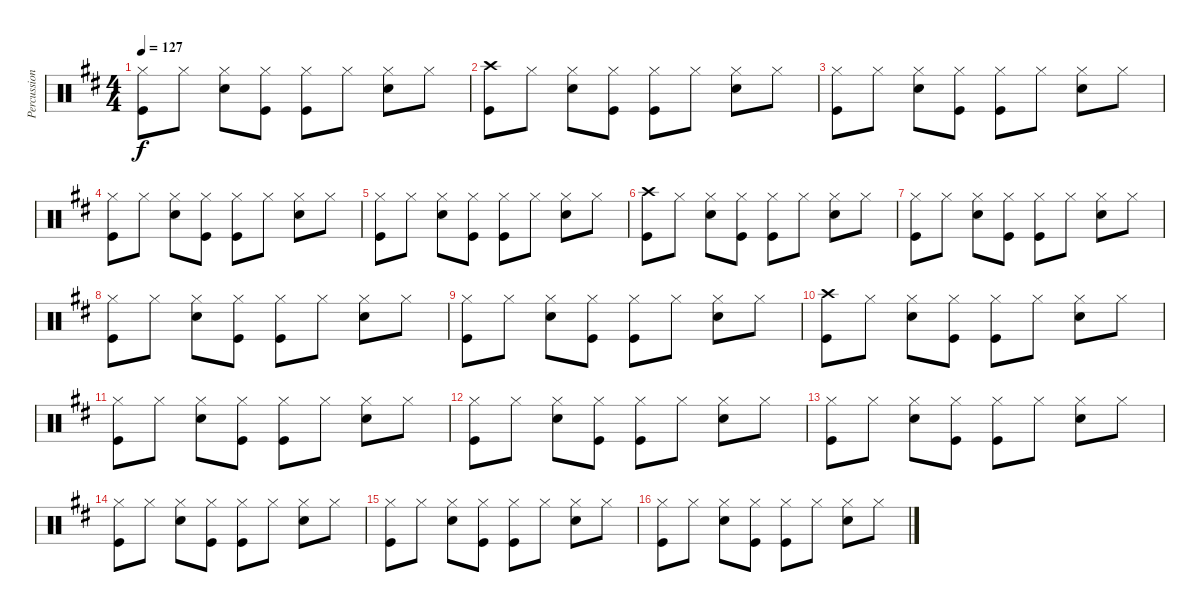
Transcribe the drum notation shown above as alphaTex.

\track ("Percussion" "Percussion") {instrument percussion}
\staff {score}
\articulation defaults
\ts (4 4)
\tempo 127
\clef neutral
\ks d
("Hi-Hat (closed)" "Kick (hit)").8{dy f} "Hi-Hat (closed)".8 ("Hi-Hat (closed)" "Snare (hit) 2").8 ("Hi-Hat (closed)" "Kick (hit)").8 ("Hi-Hat (closed)" "Kick (hit)").8 "Hi-Hat (closed)".8 ("Hi-Hat (closed)" "Snare (hit) 2").8 "Hi-Hat (closed)".8 |
("Crash high (hit)" "Kick (hit)").8 "Hi-Hat (closed)".8 ("Hi-Hat (closed)" "Snare (hit) 2").8 ("Hi-Hat (closed)" "Kick (hit)").8 ("Hi-Hat (closed)" "Kick (hit)").8 "Hi-Hat (closed)".8 ("Hi-Hat (closed)" "Snare (hit) 2").8 "Hi-Hat (closed)".8 |
("Hi-Hat (closed)" "Kick (hit)").8 "Hi-Hat (closed)".8 ("Hi-Hat (closed)" "Snare (hit) 2").8 ("Hi-Hat (closed)" "Kick (hit)").8 ("Hi-Hat (closed)" "Kick (hit)").8 "Hi-Hat (closed)".8 ("Hi-Hat (closed)" "Snare (hit) 2").8 "Hi-Hat (closed)".8 |
("Hi-Hat (closed)" "Kick (hit)").8 "Hi-Hat (closed)".8 ("Hi-Hat (closed)" "Snare (hit) 2").8 ("Hi-Hat (closed)" "Kick (hit)").8 ("Hi-Hat (closed)" "Kick (hit)").8 "Hi-Hat (closed)".8 ("Hi-Hat (closed)" "Snare (hit) 2").8 "Hi-Hat (closed)".8 |
("Hi-Hat (closed)" "Kick (hit)").8 "Hi-Hat (closed)".8 ("Hi-Hat (closed)" "Snare (hit) 2").8 ("Hi-Hat (closed)" "Kick (hit)").8 ("Hi-Hat (closed)" "Kick (hit)").8 "Hi-Hat (closed)".8 ("Hi-Hat (closed)" "Snare (hit) 2").8 "Hi-Hat (closed)".8 |
("Crash high (hit)" "Kick (hit)").8 "Hi-Hat (closed)".8 ("Hi-Hat (closed)" "Snare (hit) 2").8 ("Hi-Hat (closed)" "Kick (hit)").8 ("Hi-Hat (closed)" "Kick (hit)").8 "Hi-Hat (closed)".8 ("Hi-Hat (closed)" "Snare (hit) 2").8 "Hi-Hat (closed)".8 |
("Hi-Hat (closed)" "Kick (hit)").8 "Hi-Hat (closed)".8 ("Hi-Hat (closed)" "Snare (hit) 2").8 ("Hi-Hat (closed)" "Kick (hit)").8 ("Hi-Hat (closed)" "Kick (hit)").8 "Hi-Hat (closed)".8 ("Hi-Hat (closed)" "Snare (hit) 2").8 "Hi-Hat (closed)".8 |
("Hi-Hat (closed)" "Kick (hit)").8 "Hi-Hat (closed)".8 ("Hi-Hat (closed)" "Snare (hit) 2").8 ("Hi-Hat (closed)" "Kick (hit)").8 ("Hi-Hat (closed)" "Kick (hit)").8 "Hi-Hat (closed)".8 ("Hi-Hat (closed)" "Snare (hit) 2").8 "Hi-Hat (closed)".8 |
("Hi-Hat (closed)" "Kick (hit)").8 "Hi-Hat (closed)".8 ("Hi-Hat (closed)" "Snare (hit) 2").8 ("Hi-Hat (closed)" "Kick (hit)").8 ("Hi-Hat (closed)" "Kick (hit)").8 "Hi-Hat (closed)".8 ("Hi-Hat (closed)" "Snare (hit) 2").8 "Hi-Hat (closed)".8 |
("Crash high (hit)" "Kick (hit)").8 "Hi-Hat (closed)".8 ("Hi-Hat (closed)" "Snare (hit) 2").8 ("Hi-Hat (closed)" "Kick (hit)").8 ("Hi-Hat (closed)" "Kick (hit)").8 "Hi-Hat (closed)".8 ("Hi-Hat (closed)" "Snare (hit) 2").8 "Hi-Hat (closed)".8 |
("Hi-Hat (closed)" "Kick (hit)").8 "Hi-Hat (closed)".8 ("Hi-Hat (closed)" "Snare (hit) 2").8 ("Hi-Hat (closed)" "Kick (hit)").8 ("Hi-Hat (closed)" "Kick (hit)").8 "Hi-Hat (closed)".8 ("Hi-Hat (closed)" "Snare (hit) 2").8 "Hi-Hat (closed)".8 |
("Hi-Hat (closed)" "Kick (hit)").8 "Hi-Hat (closed)".8 ("Hi-Hat (closed)" "Snare (hit) 2").8 ("Hi-Hat (closed)" "Kick (hit)").8 ("Hi-Hat (closed)" "Kick (hit)").8 "Hi-Hat (closed)".8 ("Hi-Hat (closed)" "Snare (hit) 2").8 "Hi-Hat (closed)".8 |
("Hi-Hat (closed)" "Kick (hit)").8 "Hi-Hat (closed)".8 ("Hi-Hat (closed)" "Snare (hit) 2").8 ("Hi-Hat (closed)" "Kick (hit)").8 ("Hi-Hat (closed)" "Kick (hit)").8 "Hi-Hat (closed)".8 ("Hi-Hat (closed)" "Snare (hit) 2").8 "Hi-Hat (closed)".8 |
("Hi-Hat (closed)" "Kick (hit)").8 "Hi-Hat (closed)".8 ("Hi-Hat (closed)" "Snare (hit) 2").8 ("Hi-Hat (closed)" "Kick (hit)").8 ("Hi-Hat (closed)" "Kick (hit)").8 "Hi-Hat (closed)".8 ("Hi-Hat (closed)" "Snare (hit) 2").8 "Hi-Hat (closed)".8 |
("Hi-Hat (closed)" "Kick (hit)").8 "Hi-Hat (closed)".8 ("Hi-Hat (closed)" "Snare (hit) 2").8 ("Hi-Hat (closed)" "Kick (hit)").8 ("Hi-Hat (closed)" "Kick (hit)").8 "Hi-Hat (closed)".8 ("Hi-Hat (closed)" "Snare (hit) 2").8 "Hi-Hat (closed)".8 |
("Hi-Hat (closed)" "Kick (hit)").8 "Hi-Hat (closed)".8 ("Hi-Hat (closed)" "Snare (hit) 2").8 ("Hi-Hat (closed)" "Kick (hit)").8 ("Hi-Hat (closed)" "Kick (hit)").8 "Hi-Hat (closed)".8 ("Hi-Hat (closed)" "Snare (hit) 2").8 "Hi-Hat (closed)".8
